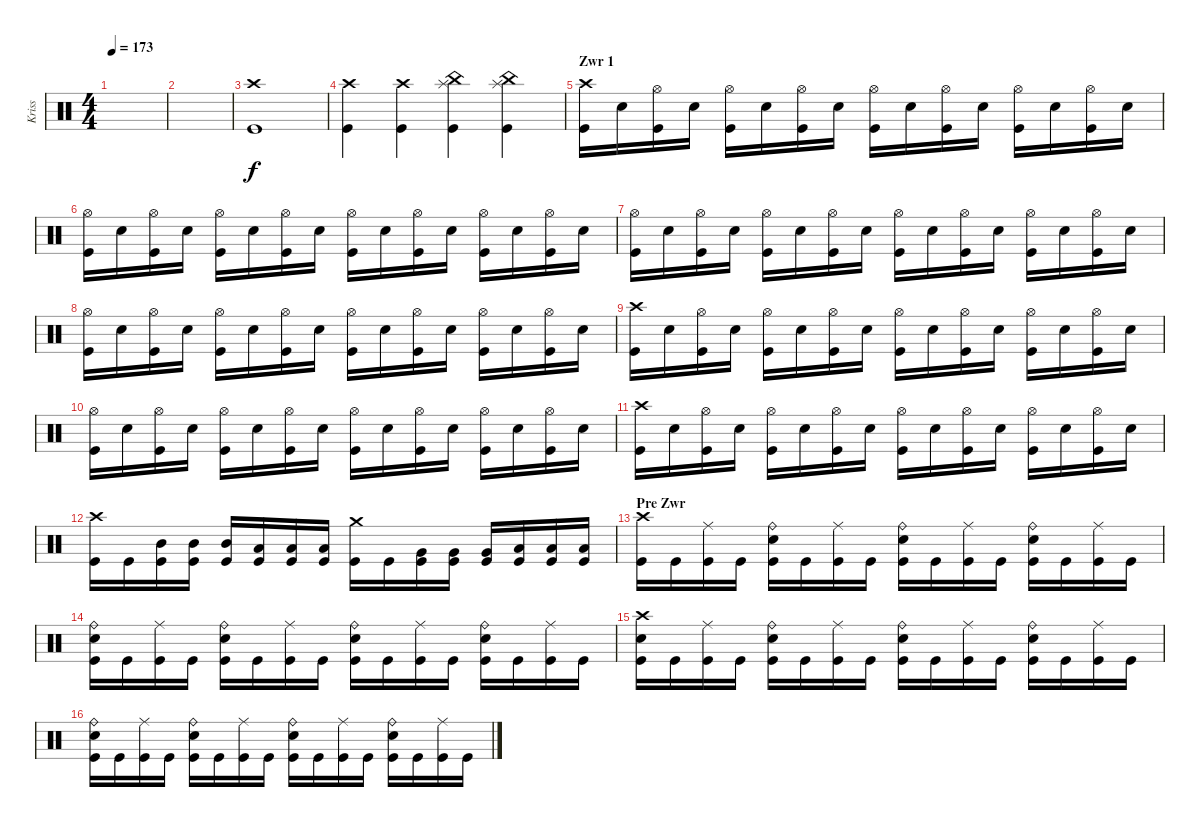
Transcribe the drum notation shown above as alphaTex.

\track ("Kriss" "Kriss") {instrument percussion}
\staff {score}
\articulation defaults
\ts (4 4)
\tempo 173
\clef neutral
\ks c
|
|
("Crash high (hit)" "Kick (hit)").1 |
("Crash high (hit)" "Kick (hit)").4 ("Crash high (hit)" "Kick (hit)").4 ("China (hit)" "Splash (hit)" "Kick (hit)").4 ("China (hit)" "Splash (hit)" "Kick (hit)").4 |
\section ("" "Zwr 1")
("Crash high (hit)" "Kick (hit)").16 "Snare (hit) 2".16 ("Hi-Hat (open)" "Kick (hit)").16 "Snare (hit) 2".16 ("Hi-Hat (open)" "Kick (hit)").16 "Snare (hit) 2".16 ("Hi-Hat (open)" "Kick (hit)").16 "Snare (hit) 2".16 ("Hi-Hat (open)" "Kick (hit)").16 "Snare (hit) 2".16 ("Hi-Hat (open)" "Kick (hit)").16 "Snare (hit) 2".16 ("Hi-Hat (open)" "Kick (hit)").16 "Snare (hit) 2".16 ("Hi-Hat (open)" "Kick (hit)").16 "Snare (hit) 2".16 |
("Hi-Hat (open)" "Kick (hit)").16 "Snare (hit) 2".16 ("Hi-Hat (open)" "Kick (hit)").16 "Snare (hit) 2".16 ("Hi-Hat (open)" "Kick (hit)").16 "Snare (hit) 2".16 ("Hi-Hat (open)" "Kick (hit)").16 "Snare (hit) 2".16 ("Hi-Hat (open)" "Kick (hit)").16 "Snare (hit) 2".16 ("Hi-Hat (open)" "Kick (hit)").16 "Snare (hit) 2".16 ("Hi-Hat (open)" "Kick (hit)").16 "Snare (hit) 2".16 ("Hi-Hat (open)" "Kick (hit)").16 "Snare (hit) 2".16 |
("Hi-Hat (open)" "Kick (hit)").16 "Snare (hit) 2".16 ("Hi-Hat (open)" "Kick (hit)").16 "Snare (hit) 2".16 ("Hi-Hat (open)" "Kick (hit)").16 "Snare (hit) 2".16 ("Hi-Hat (open)" "Kick (hit)").16 "Snare (hit) 2".16 ("Hi-Hat (open)" "Kick (hit)").16 "Snare (hit) 2".16 ("Hi-Hat (open)" "Kick (hit)").16 "Snare (hit) 2".16 ("Hi-Hat (open)" "Kick (hit)").16 "Snare (hit) 2".16 ("Hi-Hat (open)" "Kick (hit)").16 "Snare (hit) 2".16 |
("Hi-Hat (open)" "Kick (hit)").16 "Snare (hit) 2".16 ("Hi-Hat (open)" "Kick (hit)").16 "Snare (hit) 2".16 ("Hi-Hat (open)" "Kick (hit)").16 "Snare (hit) 2".16 ("Hi-Hat (open)" "Kick (hit)").16 "Snare (hit) 2".16 ("Hi-Hat (open)" "Kick (hit)").16 "Snare (hit) 2".16 ("Hi-Hat (open)" "Kick (hit)").16 "Snare (hit) 2".16 ("Hi-Hat (open)" "Kick (hit)").16 "Snare (hit) 2".16 ("Hi-Hat (open)" "Kick (hit)").16 "Snare (hit) 2".16 |
("Crash high (hit)" "Kick (hit)").16 "Snare (hit) 2".16 ("Hi-Hat (open)" "Kick (hit)").16 "Snare (hit) 2".16 ("Hi-Hat (open)" "Kick (hit)").16 "Snare (hit) 2".16 ("Hi-Hat (open)" "Kick (hit)").16 "Snare (hit) 2".16 ("Hi-Hat (open)" "Kick (hit)").16 "Snare (hit) 2".16 ("Hi-Hat (open)" "Kick (hit)").16 "Snare (hit) 2".16 ("Hi-Hat (open)" "Kick (hit)").16 "Snare (hit) 2".16 ("Hi-Hat (open)" "Kick (hit)").16 "Snare (hit) 2".16 |
("Hi-Hat (open)" "Kick (hit)").16 "Snare (hit) 2".16 ("Hi-Hat (open)" "Kick (hit)").16 "Snare (hit) 2".16 ("Hi-Hat (open)" "Kick (hit)").16 "Snare (hit) 2".16 ("Hi-Hat (open)" "Kick (hit)").16 "Snare (hit) 2".16 ("Hi-Hat (open)" "Kick (hit)").16 "Snare (hit) 2".16 ("Hi-Hat (open)" "Kick (hit)").16 "Snare (hit) 2".16 ("Hi-Hat (open)" "Kick (hit)").16 "Snare (hit) 2".16 ("Hi-Hat (open)" "Kick (hit)").16 "Snare (hit) 2".16 |
("Crash high (hit)" "Kick (hit)").16 "Snare (hit) 2".16 ("Hi-Hat (open)" "Kick (hit)").16 "Snare (hit) 2".16 ("Hi-Hat (open)" "Kick (hit)").16 "Snare (hit) 2".16 ("Hi-Hat (open)" "Kick (hit)").16 "Snare (hit) 2".16 ("Hi-Hat (open)" "Kick (hit)").16 "Snare (hit) 2".16 ("Hi-Hat (open)" "Kick (hit)").16 "Snare (hit) 2".16 ("Hi-Hat (open)" "Kick (hit)").16 "Snare (hit) 2".16 ("Hi-Hat (open)" "Kick (hit)").16 "Snare (hit) 2".16 |
("Crash high (hit)" "Kick (hit)").16 "Kick (hit)".16 ("Mid Tom (hit)" "Kick (hit)").16 ("Mid Tom (hit)" "Kick (hit)").16 ("Mid Tom (hit)" "Kick (hit)").16 ("Low Tom (hit)" "Kick (hit)").16 ("Low Tom (hit)" "Kick (hit)").16 ("Low Tom (hit)" "Kick (hit)").16 ("Crash medium (hit)" "Kick (hit)").16 "Kick (hit)".16 ("Very Low Tom (hit)" "Kick (hit)").16 ("Very Low Tom (hit)" "Kick (hit)").16 ("Very Low Tom (hit)" "Kick (hit)").16 ("Low Floor Tom (hit)" "Kick (hit)").16 ("Low Floor Tom (hit)" "Kick (hit)").16 ("Low Floor Tom (hit)" "Kick (hit)").16 |
\section ("" "Pre Zwr")
("Crash high (hit)" "Kick (hit)").16 "Kick (hit)".16 ("Ride (middle)" "Kick (hit)").16 "Kick (hit)".16 ("Ride (bell)" "Snare (hit) 2" "Kick (hit)").16 "Kick (hit)".16 ("Ride (middle)" "Kick (hit)").16 "Kick (hit)".16 ("Ride (bell)" "Snare (hit) 2" "Kick (hit)").16 "Kick (hit)".16 ("Ride (middle)" "Kick (hit)").16 "Kick (hit)".16 ("Ride (bell)" "Snare (hit) 2" "Kick (hit)").16 "Kick (hit)".16 ("Ride (middle)" "Kick (hit)").16 "Kick (hit)".16 |
("Ride (bell)" "Snare (hit) 2" "Kick (hit)").16 "Kick (hit)".16 ("Ride (middle)" "Kick (hit)").16 "Kick (hit)".16 ("Ride (bell)" "Snare (hit) 2" "Kick (hit)").16 "Kick (hit)".16 ("Ride (middle)" "Kick (hit)").16 "Kick (hit)".16 ("Ride (bell)" "Snare (hit) 2" "Kick (hit)").16 "Kick (hit)".16 ("Ride (middle)" "Kick (hit)").16 "Kick (hit)".16 ("Ride (bell)" "Snare (hit) 2" "Kick (hit)").16 "Kick (hit)".16 ("Ride (middle)" "Kick (hit)").16 "Kick (hit)".16 |
("Crash high (hit)" "Snare (hit) 2" "Kick (hit)").16 "Kick (hit)".16 ("Ride (middle)" "Kick (hit)").16 "Kick (hit)".16 ("Ride (bell)" "Snare (hit) 2" "Kick (hit)").16 "Kick (hit)".16 ("Ride (middle)" "Kick (hit)").16 "Kick (hit)".16 ("Ride (bell)" "Snare (hit) 2" "Kick (hit)").16 "Kick (hit)".16 ("Ride (middle)" "Kick (hit)").16 "Kick (hit)".16 ("Ride (bell)" "Snare (hit) 2" "Kick (hit)").16 "Kick (hit)".16 ("Ride (middle)" "Kick (hit)").16 "Kick (hit)".16 |
("Ride (bell)" "Snare (hit) 2" "Kick (hit)").16 "Kick (hit)".16 ("Ride (middle)" "Kick (hit)").16 "Kick (hit)".16 ("Ride (bell)" "Snare (hit) 2" "Kick (hit)").16 "Kick (hit)".16 ("Ride (middle)" "Kick (hit)").16 "Kick (hit)".16 ("Ride (bell)" "Snare (hit) 2" "Kick (hit)").16 "Kick (hit)".16 ("Ride (middle)" "Kick (hit)").16 "Kick (hit)".16 ("Ride (bell)" "Snare (hit) 2" "Kick (hit)").16 "Kick (hit)".16 ("Ride (middle)" "Kick (hit)").16 "Kick (hit)".16
